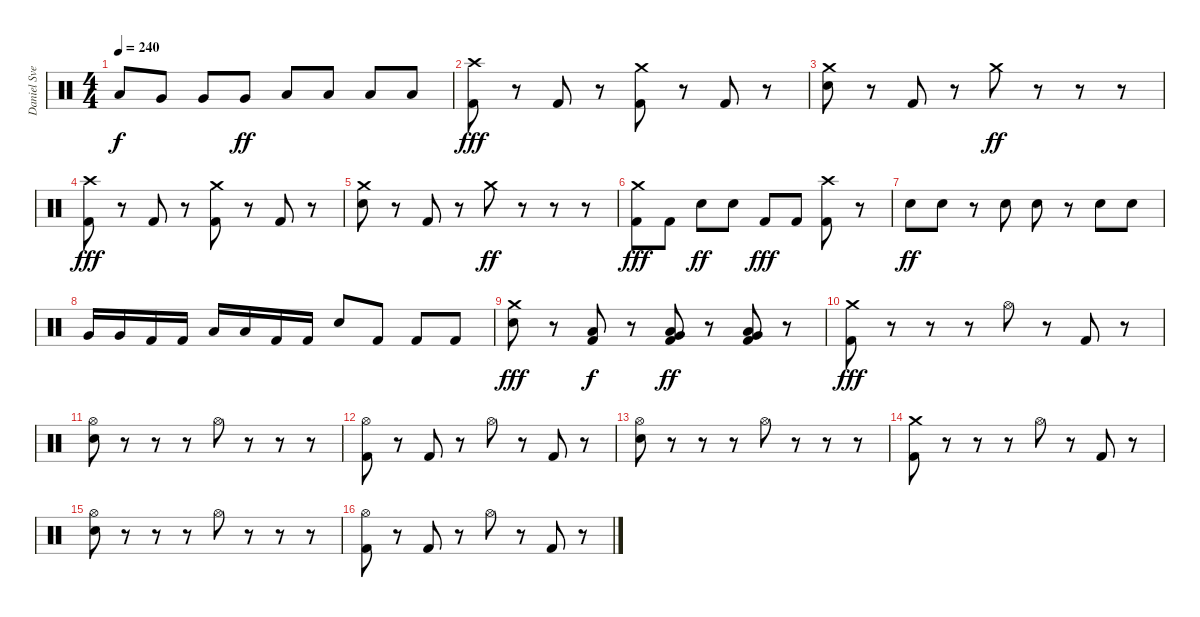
\track ("Daniel Svensson" "Daniel Sve") {instrument percussion}
\staff {score}
\articulation defaults
\ts (4 4)
\tempo 240
\clef neutral
\ks c "Low Tom (hit)".8{dy f} "Very Low Tom (hit)".8 "Very Low Tom (hit)".8 "Very Low Tom (hit)".8{dy ff} "Low Floor Tom (hit)".8 "Low Floor Tom (hit)".8 "Low Floor Tom (hit)".8 "Low Floor Tom (hit)".8
|
("Crash high (hit)" "Kick (hit) 2").8{dy fff} r.8 "Kick (hit) 2".8 r.8 ("Crash medium (hit)" "Kick (hit) 2").8 r.8 "Kick (hit) 2".8 r.8 |
("Crash medium (hit)" "Electric Snare (hit)").8 r.8 "Kick (hit) 2".8 r.8 "Crash medium (hit)".8{dy ff} r.8 r.8 r.8 |
("Crash high (hit)" "Kick (hit) 2").8{dy fff} r.8 "Kick (hit) 2".8 r.8 ("Crash medium (hit)" "Kick (hit) 2").8 r.8 "Kick (hit) 2".8 r.8 |
("Crash medium (hit)" "Electric Snare (hit)").8 r.8 "Kick (hit) 2".8 r.8 "Crash medium (hit)".8{dy ff} r.8 r.8 r.8 |
("Crash medium (hit)" "Kick (hit) 2").8{dy fff} "Kick (hit) 2".8 "Electric Snare (hit)".8{dy ff} "Electric Snare (hit)".8 "Kick (hit) 2".8{dy fff} "Kick (hit) 2".8 ("Crash high (hit)" "Kick (hit) 2").8 r.8 |
"Electric Snare (hit)".8{dy ff} "Electric Snare (hit)".8 r.8 "Electric Snare (hit)".8 "Electric Snare (hit)".8 r.8 "Electric Snare (hit)".8 "Electric Snare (hit)".8 |
"Very Low Tom (hit)".16 "Very Low Tom (hit)".16 "Kick (hit) 2".16 "Kick (hit) 2".16 "Low Floor Tom (hit)".16 "Low Floor Tom (hit)".16 "Kick (hit) 2".16 "Kick (hit) 2".16 "Electric Snare (hit)".8 "Kick (hit) 2".8 "Kick (hit) 2".8 "Kick (hit) 2".8 |
("Crash medium (hit)" "Electric Snare (hit)").8{dy fff} r.8 ("Low Floor Tom (hit)" "Kick (hit) 2").8{dy f} r.8 ("Very Low Tom (hit)" "Low Floor Tom (hit)" "Kick (hit) 2").8{dy ff} r.8 ("Very Low Tom (hit)" "Low Floor Tom (hit)" "Kick (hit) 2").8 r.8 |
("Crash medium (hit)" "Kick (hit) 2").8{dy fff} r.8 r.8 r.8 "Hi-Hat (open)".8 r.8 "Kick (hit) 2".8 r.8 |
("Hi-Hat (open)" "Electric Snare (hit)").8 r.8 r.8 r.8 "Hi-Hat (open)".8 r.8 r.8 r.8 |
("Hi-Hat (open)" "Kick (hit) 2").8 r.8 "Kick (hit) 2".8 r.8 "Hi-Hat (open)".8 r.8 "Kick (hit) 2".8 r.8 |
("Hi-Hat (open)" "Electric Snare (hit)").8 r.8 r.8 r.8 "Hi-Hat (open)".8 r.8 r.8 r.8 |
("Crash medium (hit)" "Kick (hit) 2").8 r.8 r.8 r.8 "Hi-Hat (open)".8 r.8 "Kick (hit) 2".8 r.8 |
("Hi-Hat (open)" "Electric Snare (hit)").8 r.8 r.8 r.8 "Hi-Hat (open)".8 r.8 r.8 r.8 |
("Hi-Hat (open)" "Kick (hit) 2").8 r.8 "Kick (hit) 2".8 r.8 "Hi-Hat (open)".8 r.8 "Kick (hit) 2".8 r.8
